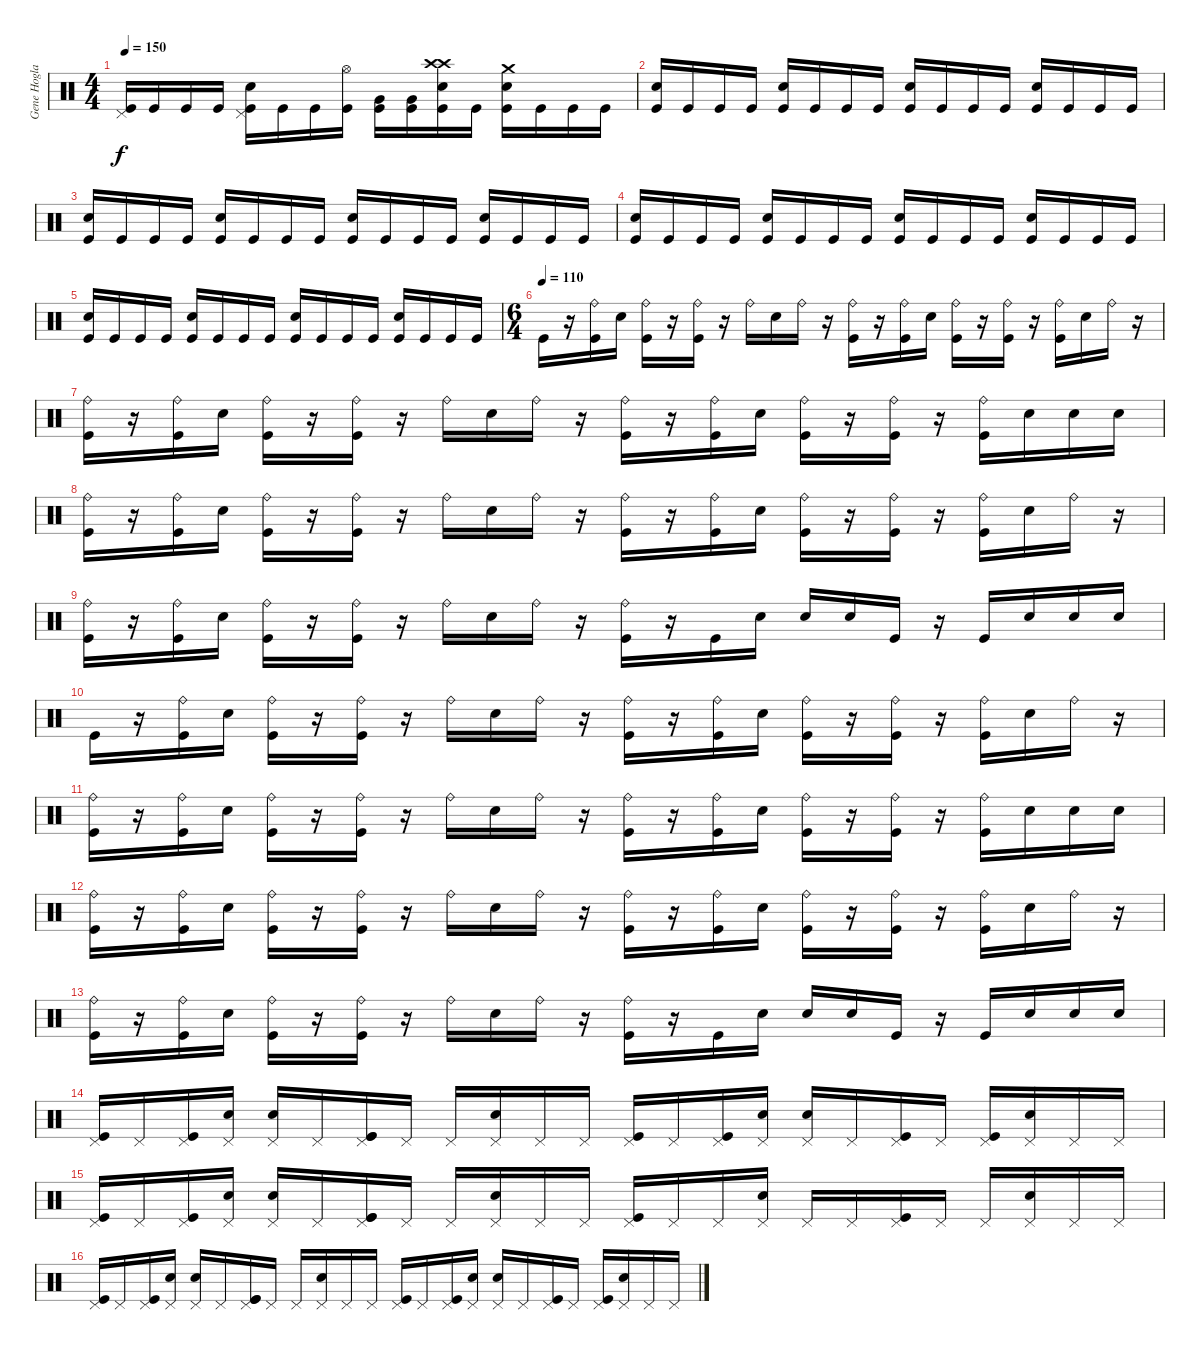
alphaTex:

\track ("Gene Hoglan" "Gene Hogla") {instrument percussion}
\staff {score}
\articulation defaults
\ts (4 4)
\tempo 150
\clef neutral
\ks c
("Pedal Hi-Hat (hit)" "Kick (hit)").16{dy f} "Kick (hit)".16 "Kick (hit)".16 "Kick (hit)".16 ("Pedal Hi-Hat (hit)" "Snare (hit) 2" "Kick (hit)").16 "Kick (hit)".16 "Kick (hit)".16 ("Hi-Hat (open)" "Kick (hit)").16 ("Very Low Tom (hit)" "Kick (hit)").16 ("Very Low Tom (hit)" "Kick (hit)").16 ("Crash high (hit)" "Crash high (hit)" "Snare (hit) 2" "Kick (hit)").16 "Kick (hit)".16 ("Crash medium (hit)" "Snare (hit) 2" "Kick (hit)").16 "Kick (hit)".16 "Kick (hit)".16 "Kick (hit)".16 |
("Snare (hit) 2" "Kick (hit)").16 "Kick (hit)".16 "Kick (hit)".16 "Kick (hit)".16 ("Snare (hit) 2" "Kick (hit)").16 "Kick (hit)".16 "Kick (hit)".16 "Kick (hit)".16 ("Snare (hit) 2" "Kick (hit)").16 "Kick (hit)".16 "Kick (hit)".16 "Kick (hit)".16 ("Snare (hit) 2" "Kick (hit)").16 "Kick (hit)".16 "Kick (hit)".16 "Kick (hit)".16 |
("Snare (hit) 2" "Kick (hit)").16 "Kick (hit)".16 "Kick (hit)".16 "Kick (hit)".16 ("Snare (hit) 2" "Kick (hit)").16 "Kick (hit)".16 "Kick (hit)".16 "Kick (hit)".16 ("Snare (hit) 2" "Kick (hit)").16 "Kick (hit)".16 "Kick (hit)".16 "Kick (hit)".16 ("Snare (hit) 2" "Kick (hit)").16 "Kick (hit)".16 "Kick (hit)".16 "Kick (hit)".16 |
("Snare (hit) 2" "Kick (hit)").16 "Kick (hit)".16 "Kick (hit)".16 "Kick (hit)".16 ("Snare (hit) 2" "Kick (hit)").16 "Kick (hit)".16 "Kick (hit)".16 "Kick (hit)".16 ("Snare (hit) 2" "Kick (hit)").16 "Kick (hit)".16 "Kick (hit)".16 "Kick (hit)".16 ("Snare (hit) 2" "Kick (hit)").16 "Kick (hit)".16 "Kick (hit)".16 "Kick (hit)".16 |
("Snare (hit) 2" "Kick (hit)").16 "Kick (hit)".16 "Kick (hit)".16 "Kick (hit)".16 ("Snare (hit) 2" "Kick (hit)").16 "Kick (hit)".16 "Kick (hit)".16 "Kick (hit)".16 ("Snare (hit) 2" "Kick (hit)").16 "Kick (hit)".16 "Kick (hit)".16 "Kick (hit)".16 ("Snare (hit) 2" "Kick (hit)").16 "Kick (hit)".16 "Kick (hit)".16 "Kick (hit)".16 |
\ts (6 4)
\tempo (110)
"Kick (hit)".16 r.16 ("Ride (bell)" "Kick (hit)").16 "Snare (hit) 2".16 ("Ride (bell)" "Kick (hit)").16 r.16 ("Ride (bell)" "Kick (hit)").16 r.16 "Ride (bell)".16 "Snare (hit) 2".16 "Ride (bell)".16 r.16 ("Ride (bell)" "Kick (hit)").16 r.16 ("Ride (bell)" "Kick (hit)").16 "Snare (hit) 2".16 ("Ride (bell)" "Kick (hit)").16 r.16 ("Ride (bell)" "Kick (hit)").16 r.16 ("Ride (bell)" "Kick (hit)").16 "Snare (hit) 2".16 "Ride (bell)".16 r.16 |
("Ride (bell)" "Kick (hit)").16 r.16 ("Ride (bell)" "Kick (hit)").16 "Snare (hit) 2".16 ("Ride (bell)" "Kick (hit)").16 r.16 ("Ride (bell)" "Kick (hit)").16 r.16 "Ride (bell)".16 "Snare (hit) 2".16 "Ride (bell)".16 r.16 ("Ride (bell)" "Kick (hit)").16 r.16 ("Ride (bell)" "Kick (hit)").16 "Snare (hit) 2".16 ("Ride (bell)" "Kick (hit)").16 r.16 ("Ride (bell)" "Kick (hit)").16 r.16 ("Ride (bell)" "Kick (hit)").16 "Snare (hit) 2".16 "Snare (hit) 2".16 "Snare (hit) 2".16 |
("Ride (bell)" "Kick (hit)").16 r.16 ("Ride (bell)" "Kick (hit)").16 "Snare (hit) 2".16 ("Ride (bell)" "Kick (hit)").16 r.16 ("Ride (bell)" "Kick (hit)").16 r.16 "Ride (bell)".16 "Snare (hit) 2".16 "Ride (bell)".16 r.16 ("Ride (bell)" "Kick (hit)").16 r.16 ("Ride (bell)" "Kick (hit)").16 "Snare (hit) 2".16 ("Ride (bell)" "Kick (hit)").16 r.16 ("Ride (bell)" "Kick (hit)").16 r.16 ("Ride (bell)" "Kick (hit)").16 "Snare (hit) 2".16 "Ride (bell)".16 r.16 |
("Ride (bell)" "Kick (hit)").16 r.16 ("Ride (bell)" "Kick (hit)").16 "Snare (hit) 2".16 ("Ride (bell)" "Kick (hit)").16 r.16 ("Ride (bell)" "Kick (hit)").16 r.16 "Ride (bell)".16 "Snare (hit) 2".16 "Ride (bell)".16 r.16 ("Ride (bell)" "Kick (hit)").16 r.16 "Kick (hit)".16 "Snare (hit) 2".16 "Snare (hit) 2".16 "Snare (hit) 2".16 "Kick (hit)".16 r.16 "Kick (hit)".16 "Snare (hit) 2".16 "Snare (hit) 2".16 "Snare (hit) 2".16 |
"Kick (hit)".16 r.16 ("Ride (bell)" "Kick (hit)").16 "Snare (hit) 2".16 ("Ride (bell)" "Kick (hit)").16 r.16 ("Ride (bell)" "Kick (hit)").16 r.16 "Ride (bell)".16 "Snare (hit) 2".16 "Ride (bell)".16 r.16 ("Ride (bell)" "Kick (hit)").16 r.16 ("Ride (bell)" "Kick (hit)").16 "Snare (hit) 2".16 ("Ride (bell)" "Kick (hit)").16 r.16 ("Ride (bell)" "Kick (hit)").16 r.16 ("Ride (bell)" "Kick (hit)").16 "Snare (hit) 2".16 "Ride (bell)".16 r.16 |
("Ride (bell)" "Kick (hit)").16 r.16 ("Ride (bell)" "Kick (hit)").16 "Snare (hit) 2".16 ("Ride (bell)" "Kick (hit)").16 r.16 ("Ride (bell)" "Kick (hit)").16 r.16 "Ride (bell)".16 "Snare (hit) 2".16 "Ride (bell)".16 r.16 ("Ride (bell)" "Kick (hit)").16 r.16 ("Ride (bell)" "Kick (hit)").16 "Snare (hit) 2".16 ("Ride (bell)" "Kick (hit)").16 r.16 ("Ride (bell)" "Kick (hit)").16 r.16 ("Ride (bell)" "Kick (hit)").16 "Snare (hit) 2".16 "Snare (hit) 2".16 "Snare (hit) 2".16 |
("Ride (bell)" "Kick (hit)").16 r.16 ("Ride (bell)" "Kick (hit)").16 "Snare (hit) 2".16 ("Ride (bell)" "Kick (hit)").16 r.16 ("Ride (bell)" "Kick (hit)").16 r.16 "Ride (bell)".16 "Snare (hit) 2".16 "Ride (bell)".16 r.16 ("Ride (bell)" "Kick (hit)").16 r.16 ("Ride (bell)" "Kick (hit)").16 "Snare (hit) 2".16 ("Ride (bell)" "Kick (hit)").16 r.16 ("Ride (bell)" "Kick (hit)").16 r.16 ("Ride (bell)" "Kick (hit)").16 "Snare (hit) 2".16 "Ride (bell)".16 r.16 |
("Ride (bell)" "Kick (hit)").16 r.16 ("Ride (bell)" "Kick (hit)").16 "Snare (hit) 2".16 ("Ride (bell)" "Kick (hit)").16 r.16 ("Ride (bell)" "Kick (hit)").16 r.16 "Ride (bell)".16 "Snare (hit) 2".16 "Ride (bell)".16 r.16 ("Ride (bell)" "Kick (hit)").16 r.16 "Kick (hit)".16 "Snare (hit) 2".16 "Snare (hit) 2".16 "Snare (hit) 2".16 "Kick (hit)".16 r.16 "Kick (hit)".16 "Snare (hit) 2".16 "Snare (hit) 2".16 "Snare (hit) 2".16 |
("Pedal Hi-Hat (hit)" "Kick (hit)").16 "Pedal Hi-Hat (hit)".16 ("Pedal Hi-Hat (hit)" "Kick (hit)").16 ("Pedal Hi-Hat (hit)" "Snare (hit) 2").16 ("Pedal Hi-Hat (hit)" "Snare (hit) 2").16 "Pedal Hi-Hat (hit)".16 ("Pedal Hi-Hat (hit)" "Kick (hit)" "Kick (hit)").16 "Pedal Hi-Hat (hit)".16 "Pedal Hi-Hat (hit)".16 ("Pedal Hi-Hat (hit)" "Snare (hit) 2").16 "Pedal Hi-Hat (hit)".16 "Pedal Hi-Hat (hit)".16 ("Pedal Hi-Hat (hit)" "Kick (hit)").16 "Pedal Hi-Hat (hit)".16 ("Pedal Hi-Hat (hit)" "Kick (hit)").16 ("Pedal Hi-Hat (hit)" "Snare (hit) 2").16 ("Pedal Hi-Hat (hit)" "Snare (hit) 2").16 "Pedal Hi-Hat (hit)".16 ("Pedal Hi-Hat (hit)" "Kick (hit)").16 "Pedal Hi-Hat (hit)".16 ("Pedal Hi-Hat (hit)" "Kick (hit)").16 ("Pedal Hi-Hat (hit)" "Snare (hit) 2").16 "Pedal Hi-Hat (hit)".16 "Pedal Hi-Hat (hit)".16 |
("Pedal Hi-Hat (hit)" "Kick (hit)").16 "Pedal Hi-Hat (hit)".16 ("Pedal Hi-Hat (hit)" "Kick (hit)").16 ("Pedal Hi-Hat (hit)" "Snare (hit) 2").16 ("Pedal Hi-Hat (hit)" "Snare (hit) 2").16 "Pedal Hi-Hat (hit)".16 ("Pedal Hi-Hat (hit)" "Kick (hit)" "Kick (hit)").16 "Pedal Hi-Hat (hit)".16 "Pedal Hi-Hat (hit)".16 ("Pedal Hi-Hat (hit)" "Snare (hit) 2").16 "Pedal Hi-Hat (hit)".16 "Pedal Hi-Hat (hit)".16 ("Pedal Hi-Hat (hit)" "Kick (hit)").16 "Pedal Hi-Hat (hit)".16 "Pedal Hi-Hat (hit)".16 ("Pedal Hi-Hat (hit)" "Snare (hit) 2").16 "Pedal Hi-Hat (hit)".16 "Pedal Hi-Hat (hit)".16 ("Pedal Hi-Hat (hit)" "Kick (hit)").16 "Pedal Hi-Hat (hit)".16 "Pedal Hi-Hat (hit)".16 ("Pedal Hi-Hat (hit)" "Snare (hit) 2").16 "Pedal Hi-Hat (hit)".16 "Pedal Hi-Hat (hit)".16 |
("Pedal Hi-Hat (hit)" "Kick (hit)").16 "Pedal Hi-Hat (hit)".16 ("Pedal Hi-Hat (hit)" "Kick (hit)").16 ("Pedal Hi-Hat (hit)" "Snare (hit) 2").16 ("Pedal Hi-Hat (hit)" "Snare (hit) 2").16 "Pedal Hi-Hat (hit)".16 ("Pedal Hi-Hat (hit)" "Kick (hit)" "Kick (hit)").16 "Pedal Hi-Hat (hit)".16 "Pedal Hi-Hat (hit)".16 ("Pedal Hi-Hat (hit)" "Snare (hit) 2").16 "Pedal Hi-Hat (hit)".16 "Pedal Hi-Hat (hit)".16 ("Pedal Hi-Hat (hit)" "Kick (hit)").16 "Pedal Hi-Hat (hit)".16 ("Pedal Hi-Hat (hit)" "Kick (hit)").16 ("Pedal Hi-Hat (hit)" "Snare (hit) 2").16 ("Pedal Hi-Hat (hit)" "Snare (hit) 2").16 "Pedal Hi-Hat (hit)".16 ("Pedal Hi-Hat (hit)" "Kick (hit)").16 "Pedal Hi-Hat (hit)".16 ("Pedal Hi-Hat (hit)" "Kick (hit)").16 ("Pedal Hi-Hat (hit)" "Snare (hit) 2").16 "Pedal Hi-Hat (hit)".16 "Pedal Hi-Hat (hit)".16
